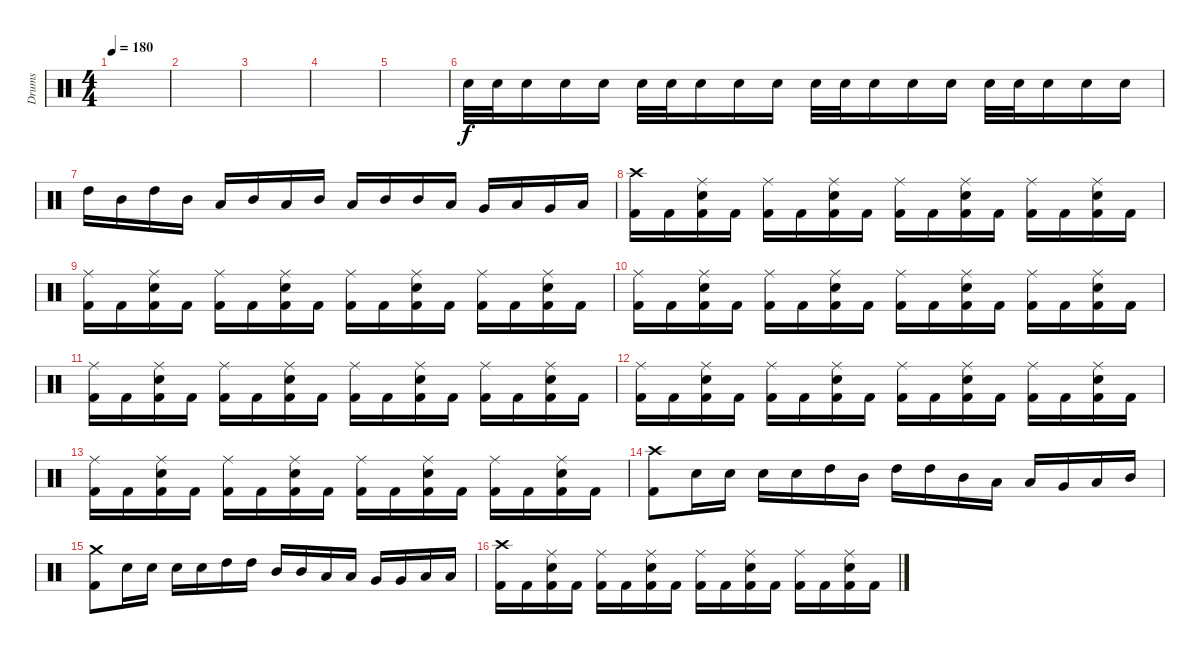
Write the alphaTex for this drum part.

\track ("Drums" "Drums") {instrument percussion}
\staff {score}
\articulation defaults
\ts (4 4)
\tempo 180
\clef neutral
\ks c
|
|
|
|
|
"Electric Snare (hit)".32 "Electric Snare (hit)".32 "Electric Snare (hit)".16 "Electric Snare (hit)".16 "Electric Snare (hit)".16 "Electric Snare (hit)".32 "Electric Snare (hit)".32 "Electric Snare (hit)".16 "Electric Snare (hit)".16 "Electric Snare (hit)".16 "Electric Snare (hit)".32 "Electric Snare (hit)".32 "Electric Snare (hit)".16 "Electric Snare (hit)".16 "Electric Snare (hit)".16 "Electric Snare (hit)".32 "Electric Snare (hit)".32 "Electric Snare (hit)".16 "Electric Snare (hit)".16 "Electric Snare (hit)".16 |
"High Tom (hit)".16 "Mid Tom (hit)".16 "High Tom (hit)".16 "Mid Tom (hit)".16 "Low Tom (hit)".16 "Mid Tom (hit)".16 "Low Tom (hit)".16 "Mid Tom (hit)".16 "Low Tom (hit)".16 "Mid Tom (hit)".16 "Mid Tom (hit)".16 "Low Tom (hit)".16 "Very Low Tom (hit)".16 "Low Tom (hit)".16 "Very Low Tom (hit)".16 "Low Floor Tom (hit)".16 |
("Crash high (hit)" "Kick (hit) 2").16 "Kick (hit) 2".16 ("Ride (middle)" "Electric Snare (hit)" "Kick (hit) 2").16 "Kick (hit) 2".16 ("Ride (middle)" "Kick (hit) 2").16 "Kick (hit) 2".16 ("Ride (middle)" "Electric Snare (hit)" "Kick (hit) 2").16 "Kick (hit) 2".16 ("Ride (middle)" "Kick (hit) 2").16 "Kick (hit) 2".16 ("Ride (middle)" "Electric Snare (hit)" "Kick (hit) 2").16 "Kick (hit) 2".16 ("Ride (middle)" "Kick (hit) 2").16 "Kick (hit) 2".16 ("Ride (middle)" "Electric Snare (hit)" "Kick (hit) 2").16 "Kick (hit) 2".16 |
("Ride (middle)" "Kick (hit) 2").16 "Kick (hit) 2".16 ("Ride (middle)" "Electric Snare (hit)" "Kick (hit) 2").16 "Kick (hit) 2".16 ("Ride (middle)" "Kick (hit) 2").16 "Kick (hit) 2".16 ("Ride (middle)" "Electric Snare (hit)" "Kick (hit) 2").16 "Kick (hit) 2".16 ("Ride (middle)" "Kick (hit) 2").16 "Kick (hit) 2".16 ("Ride (middle)" "Electric Snare (hit)" "Kick (hit) 2").16 "Kick (hit) 2".16 ("Ride (middle)" "Kick (hit) 2").16 "Kick (hit) 2".16 ("Ride (middle)" "Electric Snare (hit)" "Kick (hit) 2").16 "Kick (hit) 2".16 |
("Ride (middle)" "Kick (hit) 2").16 "Kick (hit) 2".16 ("Ride (middle)" "Electric Snare (hit)" "Kick (hit) 2").16 "Kick (hit) 2".16 ("Ride (middle)" "Kick (hit) 2").16 "Kick (hit) 2".16 ("Ride (middle)" "Electric Snare (hit)" "Kick (hit) 2").16 "Kick (hit) 2".16 ("Ride (middle)" "Kick (hit) 2").16 "Kick (hit) 2".16 ("Ride (middle)" "Electric Snare (hit)" "Kick (hit) 2").16 "Kick (hit) 2".16 ("Ride (middle)" "Kick (hit) 2").16 "Kick (hit) 2".16 ("Ride (middle)" "Electric Snare (hit)" "Kick (hit) 2").16 "Kick (hit) 2".16 |
("Ride (middle)" "Kick (hit) 2").16 "Kick (hit) 2".16 ("Ride (middle)" "Electric Snare (hit)" "Kick (hit) 2").16 "Kick (hit) 2".16 ("Ride (middle)" "Kick (hit) 2").16 "Kick (hit) 2".16 ("Ride (middle)" "Electric Snare (hit)" "Kick (hit) 2").16 "Kick (hit) 2".16 ("Ride (middle)" "Kick (hit) 2").16 "Kick (hit) 2".16 ("Ride (middle)" "Electric Snare (hit)" "Kick (hit) 2").16 "Kick (hit) 2".16 ("Ride (middle)" "Kick (hit) 2").16 "Kick (hit) 2".16 ("Ride (middle)" "Electric Snare (hit)" "Kick (hit) 2").16 "Kick (hit) 2".16 |
("Ride (middle)" "Kick (hit) 2").16 "Kick (hit) 2".16 ("Ride (middle)" "Electric Snare (hit)" "Kick (hit) 2").16 "Kick (hit) 2".16 ("Ride (middle)" "Kick (hit) 2").16 "Kick (hit) 2".16 ("Ride (middle)" "Electric Snare (hit)" "Kick (hit) 2").16 "Kick (hit) 2".16 ("Ride (middle)" "Kick (hit) 2").16 "Kick (hit) 2".16 ("Ride (middle)" "Electric Snare (hit)" "Kick (hit) 2").16 "Kick (hit) 2".16 ("Ride (middle)" "Kick (hit) 2").16 "Kick (hit) 2".16 ("Ride (middle)" "Electric Snare (hit)" "Kick (hit) 2").16 "Kick (hit) 2".16 |
("Ride (middle)" "Kick (hit) 2").16 "Kick (hit) 2".16 ("Ride (middle)" "Electric Snare (hit)" "Kick (hit) 2").16 "Kick (hit) 2".16 ("Ride (middle)" "Kick (hit) 2").16 "Kick (hit) 2".16 ("Ride (middle)" "Electric Snare (hit)" "Kick (hit) 2").16 "Kick (hit) 2".16 ("Ride (middle)" "Kick (hit) 2").16 "Kick (hit) 2".16 ("Ride (middle)" "Electric Snare (hit)" "Kick (hit) 2").16 "Kick (hit) 2".16 ("Ride (middle)" "Kick (hit) 2").16 "Kick (hit) 2".16 ("Ride (middle)" "Electric Snare (hit)" "Kick (hit) 2").16 "Kick (hit) 2".16 |
("Crash high (hit)" "Kick (hit) 2").8 "Electric Snare (hit)".16 "Electric Snare (hit)".16 "Electric Snare (hit)".16 "Electric Snare (hit)".16 "High Tom (hit)".16 "Mid Tom (hit)".16 "High Tom (hit)".16 "High Tom (hit)".16 "Mid Tom (hit)".16 "Low Tom (hit)".16 "Low Tom (hit)".16 "Very Low Tom (hit)".16 "Low Tom (hit)".16 "Mid Tom (hit)".16 |
("Crash medium (hit)" "Kick (hit) 2").8 "Electric Snare (hit)".16 "Electric Snare (hit)".16 "Electric Snare (hit)".16 "Electric Snare (hit)".16 "High Tom (hit)".16 "High Tom (hit)".16 "Mid Tom (hit)".16 "Mid Tom (hit)".16 "Low Tom (hit)".16 "Low Tom (hit)".16 "Very Low Tom (hit)".16 "Very Low Tom (hit)".16 "Low Floor Tom (hit)".16 "Low Floor Tom (hit)".16 |
("Crash high (hit)" "Kick (hit) 2").16 "Kick (hit) 2".16 ("Ride (middle)" "Electric Snare (hit)" "Kick (hit) 2").16 "Kick (hit) 2".16 ("Ride (middle)" "Kick (hit) 2").16 "Kick (hit) 2".16 ("Ride (middle)" "Electric Snare (hit)" "Kick (hit) 2").16 "Kick (hit) 2".16 ("Ride (middle)" "Kick (hit) 2").16 "Kick (hit) 2".16 ("Ride (middle)" "Electric Snare (hit)" "Kick (hit) 2").16 "Kick (hit) 2".16 ("Ride (middle)" "Kick (hit) 2").16 "Kick (hit) 2".16 ("Ride (middle)" "Electric Snare (hit)" "Kick (hit) 2").16 "Kick (hit) 2".16
